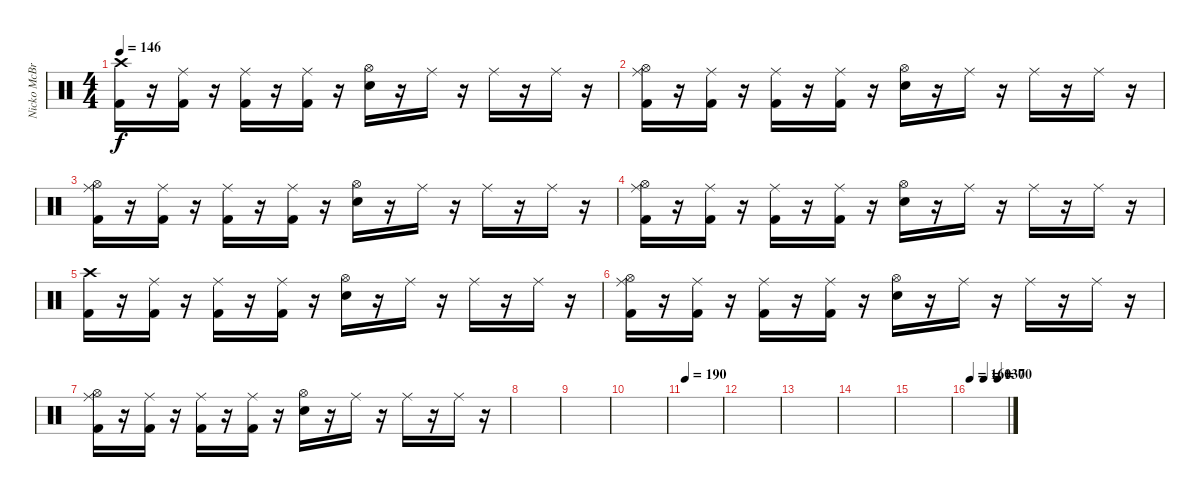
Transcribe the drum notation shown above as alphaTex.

\track ("Nicko McBrain" "Nicko McBr") {instrument percussion}
\staff {score}
\articulation defaults
\ts (4 4)
\tempo 146
\clef neutral
\ks c
("Crash high (hit)" "Kick (hit) 2").16{dy f} r.16 ("Ride (middle)" "Kick (hit) 2").16 r.16 ("Ride (middle)" "Kick (hit) 2").16 r.16 ("Ride (middle)" "Kick (hit) 2").16 r.16 ("Hi-Hat (open)" "Snare (hit) 2").16 r.16 "Ride (middle)".16 r.16 "Ride (middle)".16 r.16 "Ride (middle)".16 r.16 |
("Ride (middle)" "Hi-Hat (open)" "Kick (hit) 2").16 r.16 ("Ride (middle)" "Kick (hit) 2").16 r.16 ("Ride (middle)" "Kick (hit) 2").16 r.16 ("Ride (middle)" "Kick (hit) 2").16 r.16 ("Hi-Hat (open)" "Snare (hit) 2").16 r.16 "Ride (middle)".16 r.16 "Ride (middle)".16 r.16 "Ride (middle)".16 r.16 |
("Ride (middle)" "Hi-Hat (open)" "Kick (hit) 2").16 r.16 ("Ride (middle)" "Kick (hit) 2").16 r.16 ("Ride (middle)" "Kick (hit) 2").16 r.16 ("Ride (middle)" "Kick (hit) 2").16 r.16 ("Hi-Hat (open)" "Snare (hit) 2").16 r.16 "Ride (middle)".16 r.16 "Ride (middle)".16 r.16 "Ride (middle)".16 r.16 |
("Ride (middle)" "Hi-Hat (open)" "Kick (hit) 2").16 r.16 ("Ride (middle)" "Kick (hit) 2").16 r.16 ("Ride (middle)" "Kick (hit) 2").16 r.16 ("Ride (middle)" "Kick (hit) 2").16 r.16 ("Hi-Hat (open)" "Snare (hit) 2").16 r.16 "Ride (middle)".16 r.16 "Ride (middle)".16 r.16 "Ride (middle)".16 r.16 |
("Crash high (hit)" "Kick (hit) 2").16 r.16 ("Ride (middle)" "Kick (hit) 2").16 r.16 ("Ride (middle)" "Kick (hit) 2").16 r.16 ("Ride (middle)" "Kick (hit) 2").16 r.16 ("Hi-Hat (open)" "Snare (hit) 2").16 r.16 "Ride (middle)".16 r.16 "Ride (middle)".16 r.16 "Ride (middle)".16 r.16 |
("Ride (middle)" "Hi-Hat (open)" "Kick (hit) 2").16 r.16 ("Ride (middle)" "Kick (hit) 2").16 r.16 ("Ride (middle)" "Kick (hit) 2").16 r.16 ("Ride (middle)" "Kick (hit) 2").16 r.16 ("Hi-Hat (open)" "Snare (hit) 2").16 r.16 "Ride (middle)".16 r.16 "Ride (middle)".16 r.16 "Ride (middle)".16 r.16 |
("Ride (middle)" "Hi-Hat (open)" "Kick (hit) 2").16 r.16 ("Ride (middle)" "Kick (hit) 2").16 r.16 ("Ride (middle)" "Kick (hit) 2").16 r.16 ("Ride (middle)" "Kick (hit) 2").16 r.16 ("Hi-Hat (open)" "Snare (hit) 2").16 r.16 "Ride (middle)".16 r.16 "Ride (middle)".16 r.16 "Ride (middle)".16 r.16 |
|
|
|
\tempo 190
|
|
|
|
|
\tempo 160
\tempo (130 0.375)
\tempo (70 0.75)
